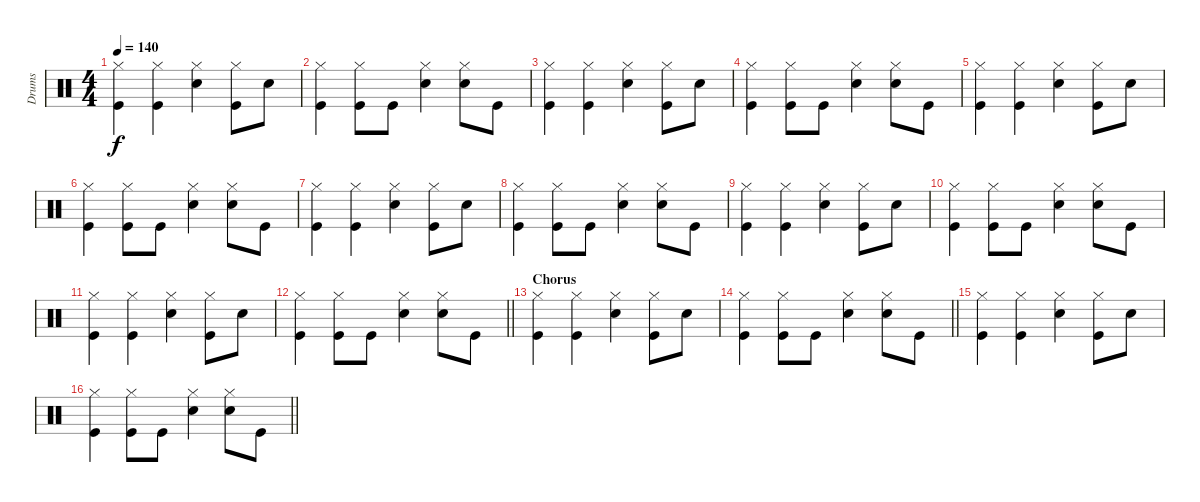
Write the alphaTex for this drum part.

\track ("Drums" "Drums") {instrument percussion}
\staff {score}
\articulation defaults
\ts (4 4)
\tempo 140
\clef neutral
\ks c
("Hi-Hat (closed)" "Kick (hit)").4{dy f} ("Hi-Hat (closed)" "Kick (hit)").4 ("Hi-Hat (closed)" "Snare (hit) 2").4 ("Hi-Hat (closed)" "Kick (hit)").8 "Snare (hit) 2".8 |
("Hi-Hat (closed)" "Kick (hit)").4 ("Hi-Hat (closed)" "Kick (hit)").8 "Kick (hit)".8 ("Hi-Hat (closed)" "Snare (hit) 2").4 ("Hi-Hat (closed)" "Snare (hit) 2").8 "Kick (hit)".8 |
("Hi-Hat (closed)" "Kick (hit)").4 ("Hi-Hat (closed)" "Kick (hit)").4 ("Hi-Hat (closed)" "Snare (hit) 2").4 ("Hi-Hat (closed)" "Kick (hit)").8 "Snare (hit) 2".8 |
("Hi-Hat (closed)" "Kick (hit)").4 ("Hi-Hat (closed)" "Kick (hit)").8 "Kick (hit)".8 ("Hi-Hat (closed)" "Snare (hit) 2").4 ("Hi-Hat (closed)" "Snare (hit) 2").8 "Kick (hit)".8 |
("Hi-Hat (closed)" "Kick (hit)").4 ("Hi-Hat (closed)" "Kick (hit)").4 ("Hi-Hat (closed)" "Snare (hit) 2").4 ("Hi-Hat (closed)" "Kick (hit)").8 "Snare (hit) 2".8 |
("Hi-Hat (closed)" "Kick (hit)").4 ("Hi-Hat (closed)" "Kick (hit)").8 "Kick (hit)".8 ("Hi-Hat (closed)" "Snare (hit) 2").4 ("Hi-Hat (closed)" "Snare (hit) 2").8 "Kick (hit)".8 |
("Hi-Hat (closed)" "Kick (hit)").4 ("Hi-Hat (closed)" "Kick (hit)").4 ("Hi-Hat (closed)" "Snare (hit) 2").4 ("Hi-Hat (closed)" "Kick (hit)").8 "Snare (hit) 2".8 |
("Hi-Hat (closed)" "Kick (hit)").4 ("Hi-Hat (closed)" "Kick (hit)").8 "Kick (hit)".8 ("Hi-Hat (closed)" "Snare (hit) 2").4 ("Hi-Hat (closed)" "Snare (hit) 2").8 "Kick (hit)".8 |
("Hi-Hat (closed)" "Kick (hit)").4 ("Hi-Hat (closed)" "Kick (hit)").4 ("Hi-Hat (closed)" "Snare (hit) 2").4 ("Hi-Hat (closed)" "Kick (hit)").8 "Snare (hit) 2".8 |
("Hi-Hat (closed)" "Kick (hit)").4 ("Hi-Hat (closed)" "Kick (hit)").8 "Kick (hit)".8 ("Hi-Hat (closed)" "Snare (hit) 2").4 ("Hi-Hat (closed)" "Snare (hit) 2").8 "Kick (hit)".8 |
("Hi-Hat (closed)" "Kick (hit)").4 ("Hi-Hat (closed)" "Kick (hit)").4 ("Hi-Hat (closed)" "Snare (hit) 2").4 ("Hi-Hat (closed)" "Kick (hit)").8 "Snare (hit) 2".8 |
\barLineRight lightlight
("Hi-Hat (closed)" "Kick (hit)").4 ("Hi-Hat (closed)" "Kick (hit)").8 "Kick (hit)".8 ("Hi-Hat (closed)" "Snare (hit) 2").4 ("Hi-Hat (closed)" "Snare (hit) 2").8 "Kick (hit)".8 |
\section ("" "Chorus")
("Hi-Hat (closed)" "Kick (hit)").4 ("Hi-Hat (closed)" "Kick (hit)").4 ("Hi-Hat (closed)" "Snare (hit) 2").4 ("Hi-Hat (closed)" "Kick (hit)").8 "Snare (hit) 2".8 |
\barLineRight lightlight
("Hi-Hat (closed)" "Kick (hit)").4 ("Hi-Hat (closed)" "Kick (hit)").8 "Kick (hit)".8 ("Hi-Hat (closed)" "Snare (hit) 2").4 ("Hi-Hat (closed)" "Snare (hit) 2").8 "Kick (hit)".8 |
("Hi-Hat (closed)" "Kick (hit)").4 ("Hi-Hat (closed)" "Kick (hit)").4 ("Hi-Hat (closed)" "Snare (hit) 2").4 ("Hi-Hat (closed)" "Kick (hit)").8 "Snare (hit) 2".8 |
\barLineRight lightlight
("Hi-Hat (closed)" "Kick (hit)").4 ("Hi-Hat (closed)" "Kick (hit)").8 "Kick (hit)".8 ("Hi-Hat (closed)" "Snare (hit) 2").4 ("Hi-Hat (closed)" "Snare (hit) 2").8 "Kick (hit)".8
